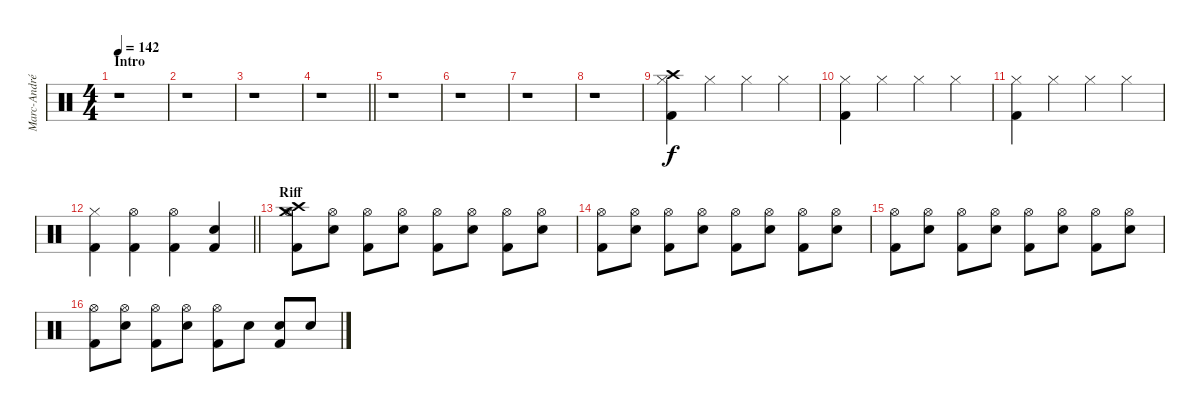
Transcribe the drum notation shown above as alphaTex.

\track ("Marc-André Barabé" "Marc-André") {instrument percussion}
\staff {score}
\articulation defaults
\ts (4 4)
\section ("" "Intro")
\tempo 142
\clef neutral
\ks c
r.1{dy f} |
r.1 |
r.1 |
\barLineRight lightlight
r.1 |
r.1 |
r.1 |
r.1 |
r.1 |
("Crash high (hit)" "Hi-Hat (closed)"{tr (4 32)} "Kick (hit) 2").4 "Hi-Hat (closed)"{tr (4 32)}.4 "Hi-Hat (closed)"{tr (4 32)}.4 "Hi-Hat (closed)"{tr (4 32)}.4 |
("Hi-Hat (closed)"{tr (4 32)} "Kick (hit) 2").4 "Hi-Hat (closed)"{tr (4 32)}.4 "Hi-Hat (closed)"{tr (4 32)}.4 "Hi-Hat (closed)"{tr (4 32)}.4 |
("Hi-Hat (closed)"{tr (4 32)} "Kick (hit) 2").4 "Hi-Hat (closed)"{tr (4 32)}.4 "Hi-Hat (closed)"{tr (4 32)}.4 "Hi-Hat (closed)"{tr (4 32)}.4 |
\barLineRight lightlight
("Hi-Hat (closed)"{tr (4 32)} "Kick (hit) 2").4 ("Hi-Hat (open)"{tr (4 32)} "Kick (hit) 2").4 ("Hi-Hat (open)"{tr (4 16)} "Kick (hit) 2").4 ("Electric Snare (hit)"{tr (4 32)} "Kick (hit) 2").4 |
\section ("" "Riff")
("Crash high (hit)" "Crash medium (hit)" "Hi-Hat (open)" "Kick (hit) 2").8 ("Hi-Hat (open)" "Electric Snare (hit)").8 ("Hi-Hat (open)" "Kick (hit) 2"{tr (2 32)}).8 ("Hi-Hat (open)" "Electric Snare (hit)").8 ("Hi-Hat (open)" "Kick (hit) 2").8 ("Hi-Hat (open)" "Electric Snare (hit)").8 ("Hi-Hat (open)" "Kick (hit) 2"{tr (2 32)}).8 ("Hi-Hat (open)" "Electric Snare (hit)").8 |
("Hi-Hat (open)" "Kick (hit) 2").8 ("Hi-Hat (open)" "Electric Snare (hit)").8 ("Hi-Hat (open)" "Kick (hit) 2"{tr (2 32)}).8 ("Hi-Hat (open)" "Electric Snare (hit)").8 ("Hi-Hat (open)" "Kick (hit) 2").8 ("Hi-Hat (open)" "Electric Snare (hit)").8 ("Hi-Hat (open)" "Kick (hit) 2"{tr (2 32)}).8 ("Hi-Hat (open)" "Electric Snare (hit)").8 |
("Hi-Hat (open)" "Kick (hit) 2").8 ("Hi-Hat (open)" "Electric Snare (hit)").8 ("Hi-Hat (open)" "Kick (hit) 2"{tr (2 32)}).8 ("Hi-Hat (open)" "Electric Snare (hit)").8 ("Hi-Hat (open)" "Kick (hit) 2").8 ("Hi-Hat (open)" "Electric Snare (hit)").8 ("Hi-Hat (open)" "Kick (hit) 2"{tr (2 32)}).8 ("Hi-Hat (open)" "Electric Snare (hit)").8 |
("Hi-Hat (open)" "Kick (hit) 2").8 ("Hi-Hat (open)" "Electric Snare (hit)").8 ("Hi-Hat (open)" "Kick (hit) 2"{tr (2 32)}).8 ("Hi-Hat (open)" "Electric Snare (hit)").8 ("Hi-Hat (open)" "Kick (hit) 2").8 "Electric Snare (hit)"{tr (4 32)}.8 ("Electric Snare (hit)"{tr (4 32)} "Kick (hit) 2"{tr (2 32)}).8 "Electric Snare (hit)"{tr (4 32)}.8
